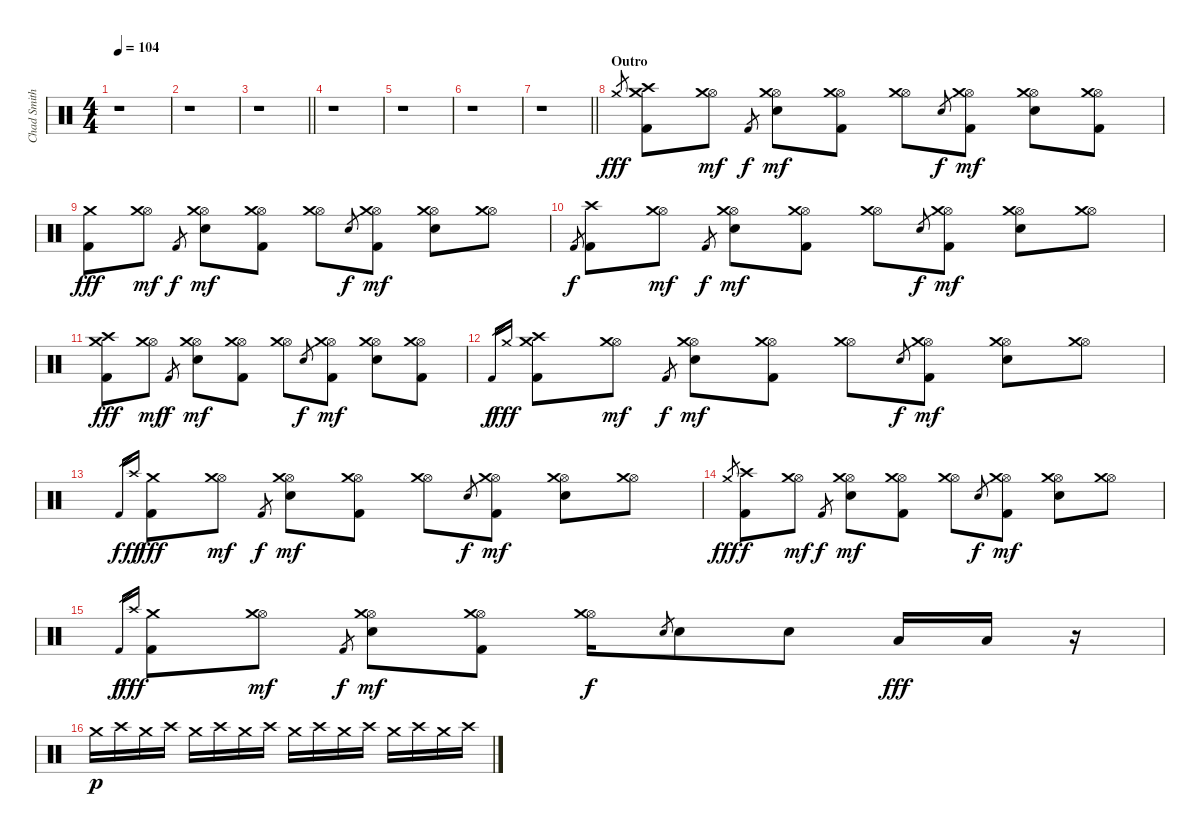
\track ("Chad Smith" "Chad Smith") {instrument percussion}
\staff {score}
\articulation defaults
\ts (4 4)
\tempo 104
\clef neutral
\ks c
r.1{dy fff} |
r.1 |
\barLineRight lightlight
r.1 |
r.1 |
r.1 |
r.1 |
\barLineRight lightlight
r.1 |
\section ("" "Outro")
"Crash medium (hit)".8{gr} ("Kick (hit) 2" "Crash medium (hit)" "Crash high (hit)").8 ("Hi-Hat (open)" "Crash medium (hit)").8{dy mf} "Kick (hit) 2".8{gr dy f} ("Hi-Hat (open)" "Electric Snare (hit)" "Crash medium (hit)").8{dy mf} ("Hi-Hat (open)" "Kick (hit) 2" "Crash medium (hit)").8 ("Hi-Hat (open)" "Crash medium (hit)").8 "Electric Snare (hit)".8{gr dy f} ("Hi-Hat (open)" "Kick (hit) 2" "Crash medium (hit)").8{dy mf} ("Hi-Hat (open)" "Electric Snare (hit)" "Crash medium (hit)").8 ("Hi-Hat (open)" "Kick (hit) 2" "Crash medium (hit)").8 |
("Kick (hit) 2" "Crash medium (hit)").8{dy fff} ("Hi-Hat (open)" "Crash medium (hit)").8{dy mf} "Kick (hit) 2".8{gr dy f} ("Hi-Hat (open)" "Electric Snare (hit)" "Crash medium (hit)").8{dy mf} ("Hi-Hat (open)" "Kick (hit) 2" "Crash medium (hit)").8 ("Hi-Hat (open)" "Crash medium (hit)").8 "Electric Snare (hit)".8{gr dy f} ("Hi-Hat (open)" "Kick (hit) 2" "Crash medium (hit)").8{dy mf} ("Hi-Hat (open)" "Electric Snare (hit)" "Crash medium (hit)").8 ("Hi-Hat (open)" "Crash medium (hit)").8 |
"Kick (hit) 2".8{gr dy f} ("Kick (hit) 2" "Crash high (hit)").8 ("Hi-Hat (open)" "Crash medium (hit)").8{dy mf} "Kick (hit) 2".8{gr dy f} ("Hi-Hat (open)" "Electric Snare (hit)" "Crash medium (hit)").8{dy mf} ("Hi-Hat (open)" "Kick (hit) 2" "Crash medium (hit)").8 ("Hi-Hat (open)" "Crash medium (hit)").8 "Electric Snare (hit)".8{gr dy f} ("Hi-Hat (open)" "Kick (hit) 2" "Crash medium (hit)").8{dy mf} ("Hi-Hat (open)" "Electric Snare (hit)" "Crash medium (hit)").8 ("Hi-Hat (open)" "Crash medium (hit)").8 |
("Kick (hit) 2" "Crash medium (hit)" "Crash high (hit)").8{dy fff} ("Hi-Hat (open)" "Crash medium (hit)").8{dy mf} "Kick (hit) 2".8{gr dy f} ("Hi-Hat (open)" "Electric Snare (hit)" "Crash medium (hit)").8{dy mf} ("Hi-Hat (open)" "Kick (hit) 2" "Crash medium (hit)").8 ("Hi-Hat (open)" "Crash medium (hit)").8 "Electric Snare (hit)".8{gr dy f} ("Hi-Hat (open)" "Kick (hit) 2" "Crash medium (hit)").8{dy mf} ("Hi-Hat (open)" "Electric Snare (hit)" "Crash medium (hit)").8 ("Hi-Hat (open)" "Kick (hit) 2" "Crash medium (hit)").8 |
"Kick (hit) 2".16{gr dy f} "Crash medium (hit)".16{gr dy fff} ("Kick (hit) 2" "Crash medium (hit)" "Crash high (hit)").8 ("Hi-Hat (open)" "Crash medium (hit)").8{dy mf} "Kick (hit) 2".8{gr dy f} ("Hi-Hat (open)" "Electric Snare (hit)" "Crash medium (hit)").8{dy mf} ("Hi-Hat (open)" "Kick (hit) 2" "Crash medium (hit)").8 ("Hi-Hat (open)" "Crash medium (hit)").8 "Electric Snare (hit)".8{gr dy f} ("Hi-Hat (open)" "Kick (hit) 2" "Crash medium (hit)").8{dy mf} ("Hi-Hat (open)" "Electric Snare (hit)" "Crash medium (hit)").8 ("Hi-Hat (open)" "Crash medium (hit)").8 |
"Kick (hit) 2".16{gr dy f} "Crash high (hit)".16{gr dy ff} ("Kick (hit) 2" "Crash medium (hit)").8{dy fff} ("Hi-Hat (open)" "Crash medium (hit)").8{dy mf} "Kick (hit) 2".8{gr dy f} ("Hi-Hat (open)" "Electric Snare (hit)" "Crash medium (hit)").8{dy mf} ("Hi-Hat (open)" "Kick (hit) 2" "Crash medium (hit)").8 ("Hi-Hat (open)" "Crash medium (hit)").8 "Electric Snare (hit)".8{gr dy f} ("Hi-Hat (open)" "Kick (hit) 2" "Crash medium (hit)").8{dy mf} ("Hi-Hat (open)" "Electric Snare (hit)" "Crash medium (hit)").8 ("Hi-Hat (open)" "Crash medium (hit)").8 |
"Crash medium (hit)".8{gr dy fff} ("Kick (hit) 2" "Crash high (hit)").8{dy f} ("Hi-Hat (open)" "Crash medium (hit)").8{dy mf} "Kick (hit) 2".8{gr dy f} ("Hi-Hat (open)" "Electric Snare (hit)" "Crash medium (hit)").8{dy mf} ("Hi-Hat (open)" "Kick (hit) 2" "Crash medium (hit)").8 ("Hi-Hat (open)" "Crash medium (hit)").8 "Electric Snare (hit)".8{gr dy f} ("Hi-Hat (open)" "Kick (hit) 2" "Crash medium (hit)").8{dy mf} ("Hi-Hat (open)" "Electric Snare (hit)" "Crash medium (hit)").8 ("Hi-Hat (open)" "Crash medium (hit)").8 |
"Kick (hit) 2".16{gr dy f} "Crash high (hit)".16{gr dy fff} ("Kick (hit) 2" "Crash medium (hit)").8 ("Hi-Hat (open)" "Crash medium (hit)").8{dy mf} "Kick (hit) 2".8{gr dy f} ("Hi-Hat (open)" "Electric Snare (hit)" "Crash medium (hit)").8{dy mf} ("Hi-Hat (open)" "Kick (hit) 2" "Crash medium (hit)").8 ("Hi-Hat (open)" "Crash medium (hit)").16{dy f} "Electric Snare (hit)".8{gr} "Electric Snare (hit)".8 "Electric Snare (hit)".8 "Low Tom (hit)".16{dy fff} "Low Tom (hit)".16 r.16 |
"Crash medium (hit)".16{dy p} "Crash high (hit)".16 "Crash medium (hit)".16 "Crash high (hit)".16 "Crash medium (hit)".16 "Crash high (hit)".16 "Crash medium (hit)".16 "Crash high (hit)".16 "Crash medium (hit)".16 "Crash high (hit)".16 "Crash medium (hit)".16 "Crash high (hit)".16 "Crash medium (hit)".16 "Crash high (hit)".16 "Crash medium (hit)".16 "Crash high (hit)".16
